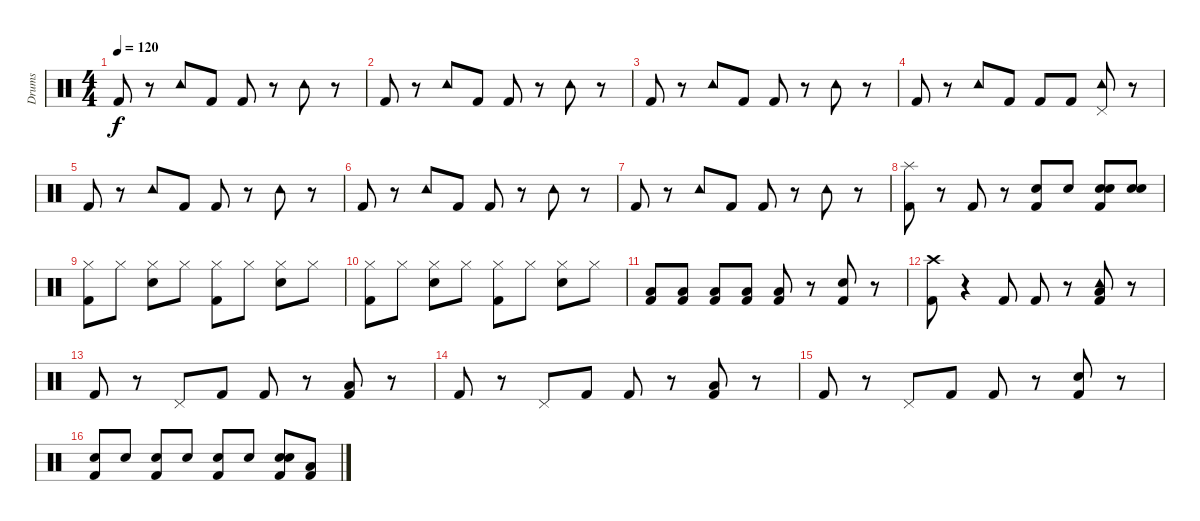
\track ("Drums" "Drums") {instrument percussion}
\staff {score}
\articulation defaults
\ts (4 4)
\tempo 120
\clef neutral
\ks c "Kick (hit) 2".8{dy f}
r.8 "Tambourine (hit)".8 "Kick (hit) 2".8 "Kick (hit) 2".8 r.8 "Tambourine (hit)".8 r.8 |
"Kick (hit) 2".8 r.8 "Tambourine (hit)".8 "Kick (hit) 2".8 "Kick (hit) 2".8 r.8 "Tambourine (hit)".8 r.8 |
"Kick (hit) 2".8 r.8 "Tambourine (hit)".8 "Kick (hit) 2".8 "Kick (hit) 2".8 r.8 "Tambourine (hit)".8 r.8 |
"Kick (hit) 2".8 r.8 "Tambourine (hit)".8 "Kick (hit) 2".8 "Kick (hit) 2".8 "Kick (hit) 2".8 ("Pedal Hi-Hat (hit)" "Tambourine (hit)").8 r.8 |
"Kick (hit) 2".8 r.8 "Tambourine (hit)".8 "Kick (hit) 2".8 "Kick (hit) 2".8 r.8 "Tambourine (hit)".8 r.8 |
"Kick (hit) 2".8 r.8 "Tambourine (hit)".8 "Kick (hit) 2".8 "Kick (hit) 2".8 r.8 "Tambourine (hit)".8 r.8 |
"Kick (hit) 2".8 r.8 "Tambourine (hit)".8 "Kick (hit) 2".8 "Kick (hit) 2".8 r.8 "Tambourine (hit)".8 r.8 |
("Splash (hit)" "Kick (hit) 2").8 r.8 "Kick (hit) 2".8 r.8 ("Snare (hit) 2" "Kick (hit) 2").8 "Snare (hit) 2".8 ("Snare (hit) 2" "Kick (hit) 2" "Snare (hit) 2").8 ("Snare (hit) 2" "Snare (hit) 2").8 |
("Hi-Hat (closed)" "Kick (hit) 2").8 "Hi-Hat (closed)".8 ("Hi-Hat (closed)" "Snare (hit) 2").8 "Hi-Hat (closed)".8 ("Hi-Hat (closed)" "Kick (hit) 2").8 "Hi-Hat (closed)".8 ("Hi-Hat (closed)" "Snare (hit) 2").8 "Hi-Hat (closed)".8 |
("Kick (hit) 2" "Hi-Hat (closed)").8 "Hi-Hat (closed)".8 ("Snare (hit) 2" "Hi-Hat (closed)").8 "Hi-Hat (closed)".8 ("Kick (hit) 2" "Hi-Hat (closed)").8 "Hi-Hat (closed)".8 ("Snare (hit) 2" "Hi-Hat (closed)").8 "Hi-Hat (closed)".8 |
("Low Tom (hit)" "Kick (hit) 2").8 ("Low Tom (hit)" "Kick (hit) 2").8 ("Low Tom (hit)" "Kick (hit) 2").8 ("Low Tom (hit)" "Kick (hit) 2").8 ("Low Tom (hit)" "Kick (hit) 2").8 r.8 ("Kick (hit) 2" "Snare (hit) 2").8 r.8 |
("Crash high (hit)" "Kick (hit) 2").8 r.4 "Kick (hit) 2".8 "Kick (hit) 2".8 r.8 ("Low Tom (hit)" "Kick (hit) 2" "Tambourine (hit)").8 r.8 |
"Kick (hit) 2".8 r.8 "Pedal Hi-Hat (hit)".8 "Kick (hit) 2".8 "Kick (hit) 2".8 r.8 ("Low Tom (hit)" "Kick (hit) 2").8 r.8 |
"Kick (hit) 2".8 r.8 "Pedal Hi-Hat (hit)".8 "Kick (hit) 2".8 "Kick (hit) 2".8 r.8 ("Kick (hit) 2" "Low Tom (hit)").8 r.8 |
"Kick (hit) 2".8 r.8 "Pedal Hi-Hat (hit)".8 "Kick (hit) 2".8 "Kick (hit) 2".8 r.8 ("Kick (hit) 2" "Snare (hit) 2").8 r.8 |
("Kick (hit) 2" "Snare (hit) 2").8 "Snare (hit) 2".8 ("Kick (hit) 2" "Snare (hit) 2").8 "Snare (hit) 2".8 ("Kick (hit) 2" "Snare (hit) 2").8 "Snare (hit) 2".8 ("Kick (hit) 2" "Snare (hit) 2" "Snare (hit) 2").8 ("Kick (hit) 2" "Low Tom (hit)").8
